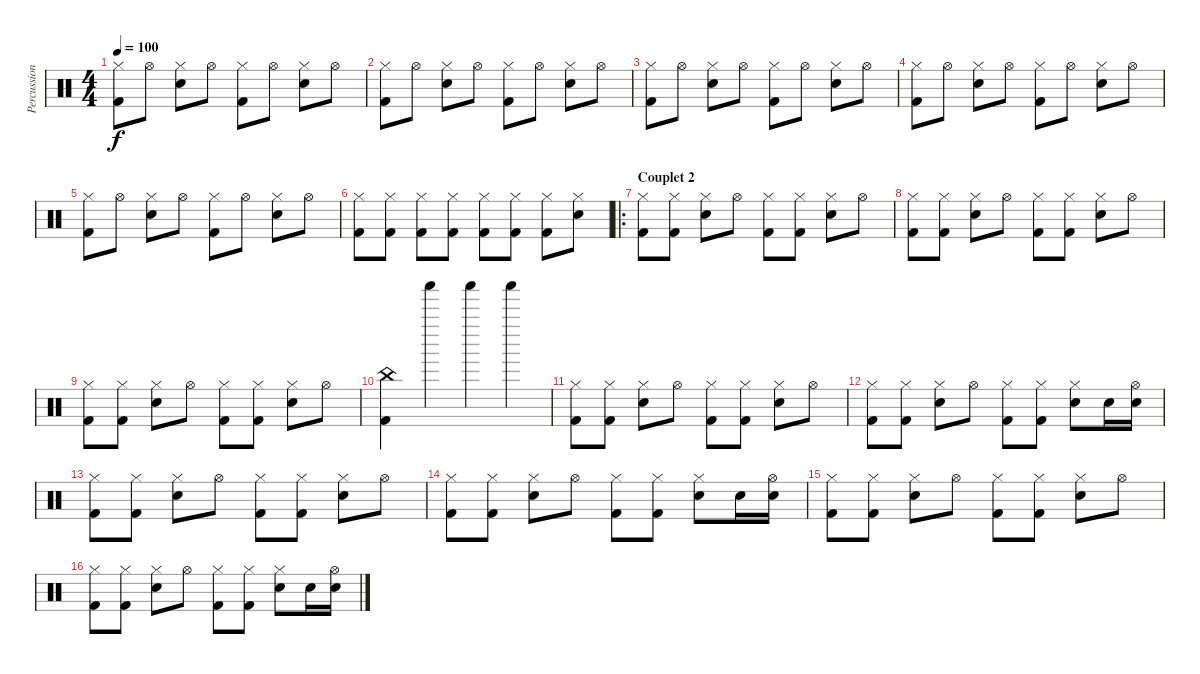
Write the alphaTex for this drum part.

\track ("Percussions" "Percussion") {instrument percussion}
\staff {score}
\articulation defaults
\ts (4 4)
\tempo 100
\clef neutral
\ks c
("Hi-Hat (closed)" "Kick (hit) 2").8{dy f} "Hi-Hat (open)".8 ("Hi-Hat (closed)" "Snare (hit) 2").8 "Hi-Hat (open)".8 ("Hi-Hat (closed)" "Kick (hit) 2").8 "Hi-Hat (open)".8 ("Hi-Hat (closed)" "Snare (hit) 2").8 "Hi-Hat (open)".8 |
("Hi-Hat (closed)" "Kick (hit) 2").8 "Hi-Hat (open)".8 ("Hi-Hat (closed)" "Snare (hit) 2").8 "Hi-Hat (open)".8 ("Hi-Hat (closed)" "Kick (hit) 2").8 "Hi-Hat (open)".8 ("Hi-Hat (closed)" "Snare (hit) 2").8 "Hi-Hat (open)".8 |
("Hi-Hat (closed)" "Kick (hit) 2").8 "Hi-Hat (open)".8 ("Hi-Hat (closed)" "Snare (hit) 2").8 "Hi-Hat (open)".8 ("Hi-Hat (closed)" "Kick (hit) 2").8 "Hi-Hat (open)".8 ("Hi-Hat (closed)" "Snare (hit) 2").8 "Hi-Hat (open)".8 |
("Hi-Hat (closed)" "Kick (hit) 2").8 "Hi-Hat (open)".8 ("Hi-Hat (closed)" "Snare (hit) 2").8 "Hi-Hat (open)".8 ("Hi-Hat (closed)" "Kick (hit) 2").8 "Hi-Hat (open)".8 ("Hi-Hat (closed)" "Snare (hit) 2").8 "Hi-Hat (open)".8 |
("Hi-Hat (closed)" "Kick (hit) 2").8 "Hi-Hat (open)".8 ("Hi-Hat (closed)" "Snare (hit) 2").8 "Hi-Hat (open)".8 ("Hi-Hat (closed)" "Kick (hit) 2").8 "Hi-Hat (open)".8 ("Hi-Hat (closed)" "Snare (hit) 2").8 "Hi-Hat (open)".8 |
("Hi-Hat (closed)" "Kick (hit) 2").8 ("Hi-Hat (closed)" "Kick (hit) 2").8 ("Hi-Hat (closed)" "Kick (hit) 2").8 ("Hi-Hat (closed)" "Kick (hit) 2").8 ("Hi-Hat (closed)" "Kick (hit) 2").8 ("Hi-Hat (closed)" "Kick (hit) 2").8 ("Hi-Hat (closed)" "Kick (hit) 2").8 ("Hi-Hat (closed)" "Snare (hit) 2").8 |
\ro
\section ("" "Couplet 2")
("Hi-Hat (closed)" "Kick (hit) 2").8 ("Hi-Hat (closed)" "Kick (hit) 2").8 ("Hi-Hat (closed)" "Snare (hit) 2").8 "Hi-Hat (open)".8 ("Hi-Hat (closed)" "Kick (hit) 2").8 ("Hi-Hat (closed)" "Kick (hit) 2").8 ("Hi-Hat (closed)" "Snare (hit) 2").8 "Hi-Hat (open)".8 |
("Hi-Hat (closed)" "Kick (hit) 2").8 ("Hi-Hat (closed)" "Kick (hit) 2").8 ("Hi-Hat (closed)" "Snare (hit) 2").8 "Hi-Hat (open)".8 ("Hi-Hat (closed)" "Kick (hit) 2").8 ("Hi-Hat (closed)" "Kick (hit) 2").8 ("Hi-Hat (closed)" "Snare (hit) 2").8 "Hi-Hat (open)".8 |
("Hi-Hat (closed)" "Kick (hit) 2").8 ("Hi-Hat (closed)" "Kick (hit) 2").8 ("Hi-Hat (closed)" "Snare (hit) 2").8 "Hi-Hat (open)".8 ("Hi-Hat (closed)" "Kick (hit) 2").8 ("Hi-Hat (closed)" "Kick (hit) 2").8 ("Hi-Hat (closed)" "Snare (hit) 2").8 "Hi-Hat (open)".8 |
("China (hit)" "Kick (hit) 2").4 "Shaker (hit)".4 "Shaker (hit)".4 "Shaker (hit)".4 |
("Hi-Hat (closed)" "Kick (hit) 2").8 ("Hi-Hat (closed)" "Kick (hit) 2").8 ("Hi-Hat (closed)" "Snare (hit) 2").8 "Hi-Hat (open)".8 ("Hi-Hat (closed)" "Kick (hit) 2").8 ("Hi-Hat (closed)" "Kick (hit) 2").8 ("Hi-Hat (closed)" "Snare (hit) 2").8 "Hi-Hat (open)".8 |
("Hi-Hat (closed)" "Kick (hit) 2").8 ("Hi-Hat (closed)" "Kick (hit) 2").8 ("Hi-Hat (closed)" "Snare (hit) 2").8 "Hi-Hat (open)".8 ("Hi-Hat (closed)" "Kick (hit) 2").8 ("Hi-Hat (closed)" "Kick (hit) 2").8 ("Hi-Hat (closed)" "Snare (hit) 2").8 "Snare (hit) 2".16 ("Hi-Hat (open)" "Snare (hit) 2").16 |
("Hi-Hat (closed)" "Kick (hit) 2").8 ("Hi-Hat (closed)" "Kick (hit) 2").8 ("Hi-Hat (closed)" "Snare (hit) 2").8 "Hi-Hat (open)".8 ("Hi-Hat (closed)" "Kick (hit) 2").8 ("Hi-Hat (closed)" "Kick (hit) 2").8 ("Hi-Hat (closed)" "Snare (hit) 2").8 "Hi-Hat (open)".8 |
("Hi-Hat (closed)" "Kick (hit) 2").8 ("Hi-Hat (closed)" "Kick (hit) 2").8 ("Hi-Hat (closed)" "Snare (hit) 2").8 "Hi-Hat (open)".8 ("Hi-Hat (closed)" "Kick (hit) 2").8 ("Hi-Hat (closed)" "Kick (hit) 2").8 ("Hi-Hat (closed)" "Snare (hit) 2").8 "Snare (hit) 2".16 ("Hi-Hat (open)" "Snare (hit) 2").16 |
("Hi-Hat (closed)" "Kick (hit) 2").8 ("Hi-Hat (closed)" "Kick (hit) 2").8 ("Hi-Hat (closed)" "Snare (hit) 2").8 "Hi-Hat (open)".8 ("Hi-Hat (closed)" "Kick (hit) 2").8 ("Hi-Hat (closed)" "Kick (hit) 2").8 ("Hi-Hat (closed)" "Snare (hit) 2").8 "Hi-Hat (open)".8 |
("Hi-Hat (closed)" "Kick (hit) 2").8 ("Hi-Hat (closed)" "Kick (hit) 2").8 ("Hi-Hat (closed)" "Snare (hit) 2").8 "Hi-Hat (open)".8 ("Hi-Hat (closed)" "Kick (hit) 2").8 ("Hi-Hat (closed)" "Kick (hit) 2").8 ("Hi-Hat (closed)" "Snare (hit) 2").8 "Snare (hit) 2".16 ("Hi-Hat (open)" "Snare (hit) 2").16
